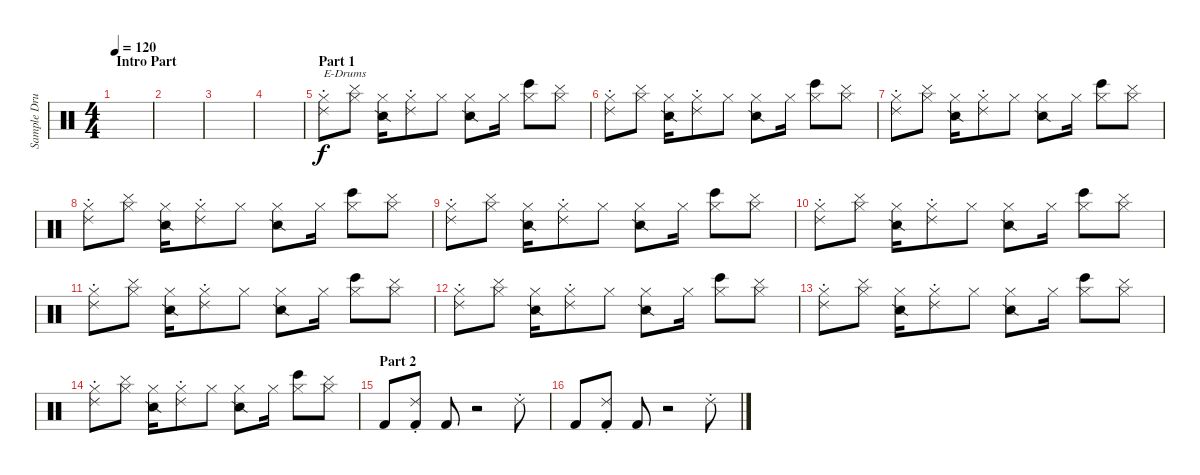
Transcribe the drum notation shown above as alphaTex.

\track ("Sample Drums" "Sample Dru") {instrument percussion}
\staff {score}
\articulation defaults
\ts (4 4)
\section ("" "Intro Part")
\tempo 120
\clef neutral
\ks c
|
|
|
|
\section ("" "Part 1")
("Hi-Hat (closed)" "Ride (choke) 2").8{txt "E-Drums"} ("Hi-Hat (closed)" "Cymbal (hit)").8 ("Hi-Hat (closed)" "Snare (side stick) 2").16 ("Hi-Hat (closed)" "Ride (choke) 2").8 "Hi-Hat (closed)".8 ("Hi-Hat (closed)" "Snare (side stick) 2").8 "Hi-Hat (closed)".16 ("Hi-Hat (closed)" "Bongo High (hit)").8 ("Hi-Hat (closed)" "Cymbal (hit)").8 |
("Hi-Hat (closed)" "Ride (choke) 2").8 ("Hi-Hat (closed)" "Cymbal (hit)").8 ("Hi-Hat (closed)" "Snare (side stick) 2").16 ("Hi-Hat (closed)" "Ride (choke) 2").8 "Hi-Hat (closed)".8 ("Hi-Hat (closed)" "Snare (side stick) 2").8 "Hi-Hat (closed)".16 ("Hi-Hat (closed)" "Bongo High (hit)").8 ("Hi-Hat (closed)" "Cymbal (hit)").8 |
("Hi-Hat (closed)" "Ride (choke) 2").8 ("Hi-Hat (closed)" "Cymbal (hit)").8 ("Hi-Hat (closed)" "Snare (side stick) 2").16 ("Hi-Hat (closed)" "Ride (choke) 2").8 "Hi-Hat (closed)".8 ("Hi-Hat (closed)" "Snare (side stick) 2").8 "Hi-Hat (closed)".16 ("Hi-Hat (closed)" "Bongo High (hit)").8 ("Hi-Hat (closed)" "Cymbal (hit)").8 |
("Hi-Hat (closed)" "Ride (choke) 2").8 ("Hi-Hat (closed)" "Cymbal (hit)").8 ("Hi-Hat (closed)" "Snare (side stick) 2").16 ("Hi-Hat (closed)" "Ride (choke) 2").8 "Hi-Hat (closed)".8 ("Hi-Hat (closed)" "Snare (side stick) 2").8 "Hi-Hat (closed)".16 ("Hi-Hat (closed)" "Bongo High (hit)").8 ("Hi-Hat (closed)" "Cymbal (hit)").8 |
("Hi-Hat (closed)" "Ride (choke) 2").8 ("Hi-Hat (closed)" "Cymbal (hit)").8 ("Hi-Hat (closed)" "Snare (side stick) 2").16 ("Hi-Hat (closed)" "Ride (choke) 2").8 "Hi-Hat (closed)".8 ("Hi-Hat (closed)" "Snare (side stick) 2").8 "Hi-Hat (closed)".16 ("Hi-Hat (closed)" "Bongo High (hit)").8 ("Hi-Hat (closed)" "Cymbal (hit)").8 |
("Hi-Hat (closed)" "Ride (choke) 2").8 ("Hi-Hat (closed)" "Cymbal (hit)").8 ("Hi-Hat (closed)" "Snare (side stick) 2").16 ("Hi-Hat (closed)" "Ride (choke) 2").8 "Hi-Hat (closed)".8 ("Hi-Hat (closed)" "Snare (side stick) 2").8 "Hi-Hat (closed)".16 ("Hi-Hat (closed)" "Bongo High (hit)").8 ("Hi-Hat (closed)" "Cymbal (hit)").8 |
("Hi-Hat (closed)" "Ride (choke) 2").8 ("Hi-Hat (closed)" "Cymbal (hit)").8 ("Hi-Hat (closed)" "Snare (side stick) 2").16 ("Hi-Hat (closed)" "Ride (choke) 2").8 "Hi-Hat (closed)".8 ("Hi-Hat (closed)" "Snare (side stick) 2").8 "Hi-Hat (closed)".16 ("Hi-Hat (closed)" "Bongo High (hit)").8 ("Hi-Hat (closed)" "Cymbal (hit)").8 |
("Hi-Hat (closed)" "Ride (choke) 2").8 ("Hi-Hat (closed)" "Cymbal (hit)").8 ("Hi-Hat (closed)" "Snare (side stick) 2").16 ("Hi-Hat (closed)" "Ride (choke) 2").8 "Hi-Hat (closed)".8 ("Hi-Hat (closed)" "Snare (side stick) 2").8 "Hi-Hat (closed)".16 ("Hi-Hat (closed)" "Bongo High (hit)").8 ("Hi-Hat (closed)" "Cymbal (hit)").8 |
("Hi-Hat (closed)" "Ride (choke) 2").8 ("Hi-Hat (closed)" "Cymbal (hit)").8 ("Hi-Hat (closed)" "Snare (side stick) 2").16 ("Hi-Hat (closed)" "Ride (choke) 2").8 "Hi-Hat (closed)".8 ("Hi-Hat (closed)" "Snare (side stick) 2").8 "Hi-Hat (closed)".16 ("Hi-Hat (closed)" "Bongo High (hit)").8 ("Hi-Hat (closed)" "Cymbal (hit)").8 |
("Hi-Hat (closed)" "Ride (choke) 2").8 ("Hi-Hat (closed)" "Cymbal (hit)").8 ("Hi-Hat (closed)" "Snare (side stick) 2").16 ("Hi-Hat (closed)" "Ride (choke) 2").8 "Hi-Hat (closed)".8 ("Hi-Hat (closed)" "Snare (side stick) 2").8 "Hi-Hat (closed)".16 ("Hi-Hat (closed)" "Bongo High (hit)").8 ("Hi-Hat (closed)" "Cymbal (hit)").8 |
\section ("" "Part 2")
"Kick (hit) 2".8 ("Ride (choke) 2" "Kick (hit) 2").8 "Kick (hit) 2".8 r.2 "Ride (choke) 2".8 |
"Kick (hit) 2".8 ("Ride (choke) 2" "Kick (hit) 2").8 "Kick (hit) 2".8 r.2 "Ride (choke) 2".8
